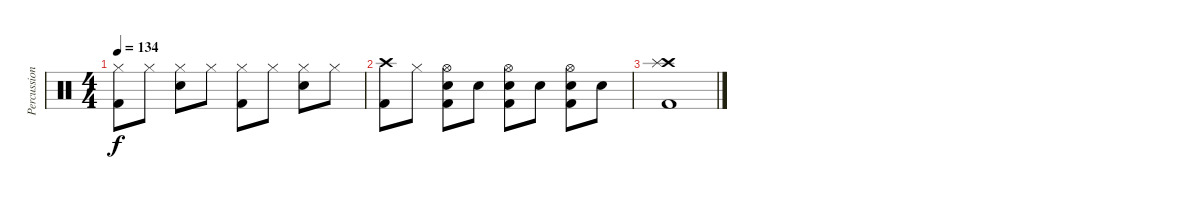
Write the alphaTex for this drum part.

\track ("Percussion" "Percussion") {instrument percussion}
\staff {score}
\articulation defaults
\ts (4 4)
\tempo 134
\clef neutral
\ks c
("Hi-Hat (closed)" "Kick (hit) 2").8{dy f} "Hi-Hat (closed)".8 ("Hi-Hat (closed)" "Snare (hit) 2").8 "Hi-Hat (closed)".8 ("Hi-Hat (closed)" "Kick (hit) 2").8 "Hi-Hat (closed)".8 ("Hi-Hat (closed)" "Snare (hit) 2").8 "Hi-Hat (closed)".8 |
("Crash high (hit)" "Kick (hit) 2").8 "Hi-Hat (closed)".8 ("Hi-Hat (open)" "Snare (hit) 2" "Kick (hit) 2").8 "Snare (hit) 2".8 ("Hi-Hat (open)" "Snare (hit) 2" "Kick (hit) 2").8 "Snare (hit) 2".8 ("Hi-Hat (open)" "Snare (hit) 2" "Kick (hit) 2").8 "Snare (hit) 2".8 |
("Crash high (hit)" "Splash (hit)" "Kick (hit) 2").1
